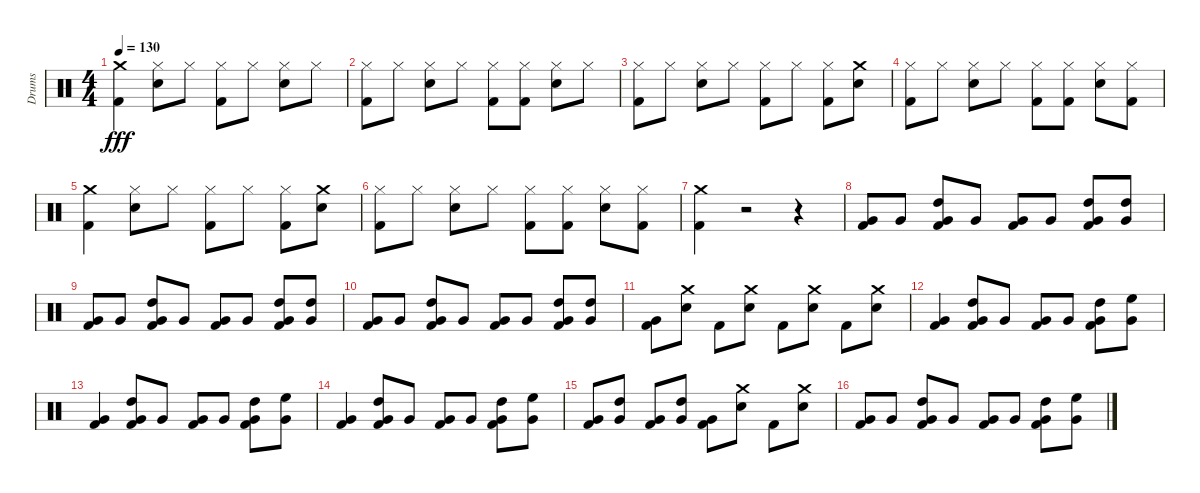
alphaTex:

\track ("Drums" "Drums") {instrument percussion}
\staff {score}
\articulation defaults
\ts (4 4)
\tempo 130
\clef neutral
\ks c
("Crash medium (hit)" "Kick (hit) 2").4{dy fff} ("Hi-Hat (closed)" "Snare (hit) 2").8 "Hi-Hat (closed)".8 ("Hi-Hat (closed)" "Kick (hit) 2").8 "Hi-Hat (closed)".8 ("Snare (hit) 2" "Hi-Hat (closed)").8 "Hi-Hat (closed)".8 |
("Hi-Hat (closed)" "Kick (hit) 2").8 "Hi-Hat (closed)".8 ("Snare (hit) 2" "Hi-Hat (closed)").8 "Hi-Hat (closed)".8 ("Kick (hit) 2" "Hi-Hat (closed)").8 ("Kick (hit) 2" "Hi-Hat (closed)").8 ("Snare (hit) 2" "Hi-Hat (closed)").8 "Hi-Hat (closed)".8 |
("Hi-Hat (closed)" "Kick (hit) 2").8 "Hi-Hat (closed)".8 ("Snare (hit) 2" "Hi-Hat (closed)").8 "Hi-Hat (closed)".8 ("Hi-Hat (closed)" "Kick (hit) 2").8 "Hi-Hat (closed)".8 ("Hi-Hat (closed)" "Kick (hit) 2").8 ("Crash medium (hit)" "Snare (hit) 2").8 |
("Hi-Hat (closed)" "Kick (hit) 2").8 "Hi-Hat (closed)".8 ("Snare (hit) 2" "Hi-Hat (closed)").8 "Hi-Hat (closed)".8 ("Kick (hit) 2" "Hi-Hat (closed)").8 ("Kick (hit) 2" "Hi-Hat (closed)").8 ("Snare (hit) 2" "Hi-Hat (closed)").8 ("Kick (hit) 2" "Hi-Hat (closed)").8 |
("Kick (hit) 2" "Crash medium (hit)").4 ("Snare (hit) 2" "Hi-Hat (closed)").8 "Hi-Hat (closed)".8 ("Hi-Hat (closed)" "Kick (hit) 2").8 "Hi-Hat (closed)".8 ("Hi-Hat (closed)" "Kick (hit) 2").8 ("Crash medium (hit)" "Snare (hit) 2").8 |
("Hi-Hat (closed)" "Kick (hit) 2").8 "Hi-Hat (closed)".8 ("Snare (hit) 2" "Hi-Hat (closed)").8 "Hi-Hat (closed)".8 ("Kick (hit) 2" "Hi-Hat (closed)").8 ("Kick (hit) 2" "Hi-Hat (closed)").8 ("Snare (hit) 2" "Hi-Hat (closed)").8 ("Kick (hit) 2" "Hi-Hat (closed)").8 |
("Kick (hit) 2" "Crash medium (hit)").4 r.2 r.4 |
("Very Low Tom (hit)" "Kick (hit) 2").8 "Very Low Tom (hit)".8 ("High Tom (hit)" "Very Low Tom (hit)" "Kick (hit) 2").8 "Very Low Tom (hit)".8 ("Very Low Tom (hit)" "Kick (hit) 2").8 "Very Low Tom (hit)".8 ("High Tom (hit)" "Very Low Tom (hit)" "Kick (hit) 2").8 ("High Tom (hit)" "Very Low Tom (hit)").8 |
("Very Low Tom (hit)" "Kick (hit) 2").8 "Very Low Tom (hit)".8 ("High Tom (hit)" "Very Low Tom (hit)" "Kick (hit) 2").8 "Very Low Tom (hit)".8 ("Very Low Tom (hit)" "Kick (hit) 2").8 "Very Low Tom (hit)".8 ("High Tom (hit)" "Very Low Tom (hit)" "Kick (hit) 2").8 ("High Tom (hit)" "Very Low Tom (hit)").8 |
("Very Low Tom (hit)" "Kick (hit) 2").8 "Very Low Tom (hit)".8 ("High Tom (hit)" "Very Low Tom (hit)" "Kick (hit) 2").8 "Very Low Tom (hit)".8 ("Very Low Tom (hit)" "Kick (hit) 2").8 "Very Low Tom (hit)".8 ("High Tom (hit)" "Very Low Tom (hit)" "Kick (hit) 2").8 ("High Tom (hit)" "Very Low Tom (hit)").8 |
("Kick (hit) 2" "Very Low Tom (hit)").8 ("Crash medium (hit)" "Snare (hit) 2").8 "Kick (hit) 2".8 ("Snare (hit) 2" "Crash medium (hit)").8 "Kick (hit) 2".8 ("Crash medium (hit)" "Snare (hit) 2").8 "Kick (hit) 2".8 ("Crash medium (hit)" "Snare (hit) 2").8 |
("Very Low Tom (hit)" "Kick (hit) 2").4 ("High Tom (hit)" "Very Low Tom (hit)" "Kick (hit) 2").8 "Very Low Tom (hit)".8 ("Very Low Tom (hit)" "Kick (hit) 2").8 "Very Low Tom (hit)".8 ("High Tom (hit)" "Very Low Tom (hit)" "Kick (hit) 2").8 ("High Floor Tom (hit)" "Very Low Tom (hit)").8 |
("Very Low Tom (hit)" "Kick (hit) 2").4 ("High Tom (hit)" "Very Low Tom (hit)" "Kick (hit) 2").8 "Very Low Tom (hit)".8 ("Very Low Tom (hit)" "Kick (hit) 2").8 "Very Low Tom (hit)".8 ("High Tom (hit)" "Very Low Tom (hit)" "Kick (hit) 2").8 ("High Floor Tom (hit)" "Very Low Tom (hit)").8 |
("Very Low Tom (hit)" "Kick (hit) 2").4 ("High Tom (hit)" "Very Low Tom (hit)" "Kick (hit) 2").8 "Very Low Tom (hit)".8 ("Very Low Tom (hit)" "Kick (hit) 2").8 "Very Low Tom (hit)".8 ("High Tom (hit)" "Very Low Tom (hit)" "Kick (hit) 2").8 ("High Floor Tom (hit)" "Very Low Tom (hit)").8 |
("Very Low Tom (hit)" "Kick (hit) 2").8 ("High Tom (hit)" "Very Low Tom (hit)").8 ("Very Low Tom (hit)" "Kick (hit) 2").8 ("High Tom (hit)" "Very Low Tom (hit)").8 ("Very Low Tom (hit)" "Kick (hit) 2").8 ("Crash medium (hit)" "Snare (hit) 2").8 "Kick (hit) 2".8 ("Snare (hit) 2" "Crash medium (hit)").8 |
("Very Low Tom (hit)" "Kick (hit) 2").8 "Very Low Tom (hit)".8 ("High Tom (hit)" "Very Low Tom (hit)" "Kick (hit) 2").8 "Very Low Tom (hit)".8 ("Very Low Tom (hit)" "Kick (hit) 2").8 "Very Low Tom (hit)".8 ("High Tom (hit)" "Very Low Tom (hit)" "Kick (hit) 2").8 ("High Floor Tom (hit)" "Very Low Tom (hit)").8
